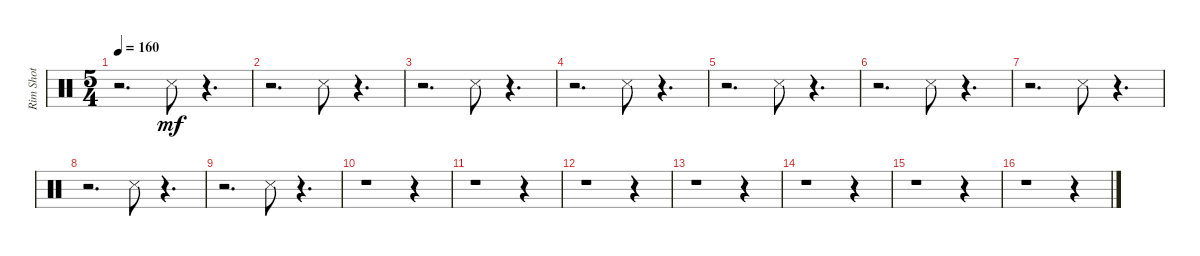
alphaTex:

\track ("Rim Shot" "Rim Shot") {instrument percussion}
\staff {score}
\articulation defaults
\ts (5 4)
\tempo 160
\clef neutral
\ks c
r.2{d dy mf} "Snare (side stick) 3".8 r.4{d} |
r.2{d} "Snare (side stick) 3".8 r.4{d} |
r.2{d} "Snare (side stick) 3".8 r.4{d} |
r.2{d} "Snare (side stick) 3".8 r.4{d} |
r.2{d} "Snare (side stick) 3".8 r.4{d} |
r.2{d} "Snare (side stick) 3".8 r.4{d} |
r.2{d} "Snare (side stick) 3".8 r.4{d} |
r.2{d} "Snare (side stick) 3".8 r.4{d} |
r.2{d} "Snare (side stick) 3".8 r.4{d} |
r.1 r.4 |
r.1 r.4 |
r.1 r.4 |
r.1 r.4 |
r.1 r.4 |
r.1 r.4 |
r.1 r.4
